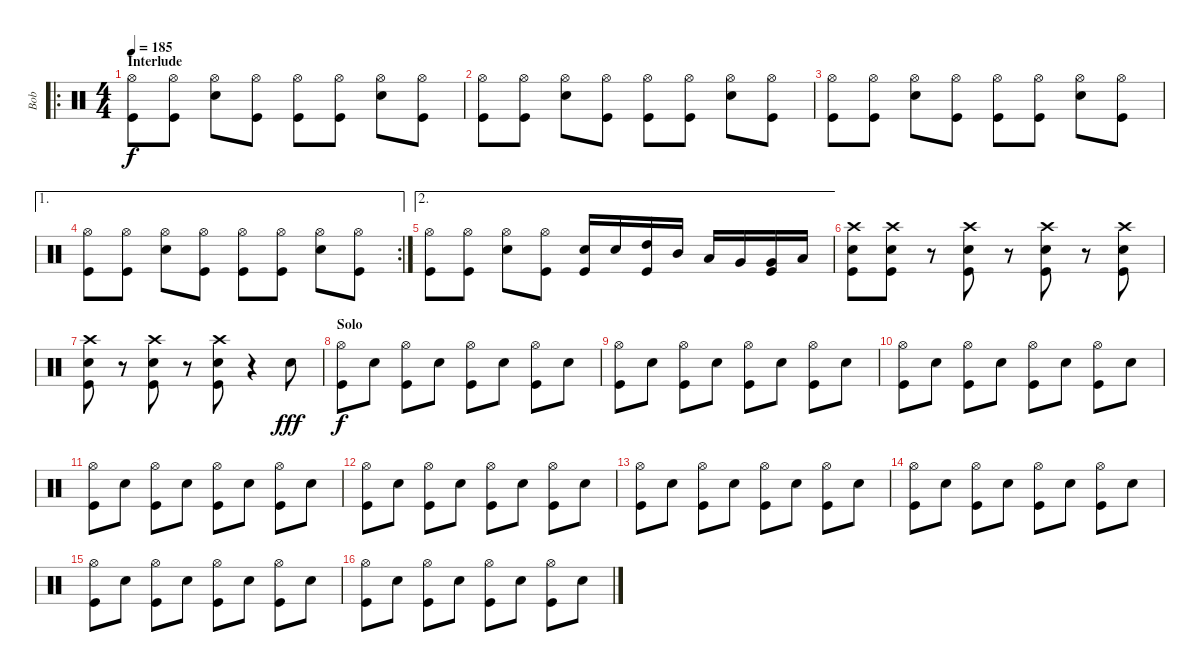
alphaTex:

\track ("Bob" "Bob") {instrument percussion}
\staff {score}
\articulation defaults
\ro
\ts (4 4)
\section ("" "Interlude")
\tempo 185
\clef neutral
\ks c
("Hi-Hat (open)" "Kick (hit)").8{dy f} ("Hi-Hat (open)" "Kick (hit)").8 ("Hi-Hat (open)" "Snare (hit) 2").8 ("Hi-Hat (open)" "Kick (hit)").8 ("Hi-Hat (open)" "Kick (hit)").8 ("Hi-Hat (open)" "Kick (hit)").8 ("Hi-Hat (open)" "Snare (hit) 2").8 ("Hi-Hat (open)" "Kick (hit)").8 |
("Hi-Hat (open)" "Kick (hit)").8 ("Hi-Hat (open)" "Kick (hit)").8 ("Hi-Hat (open)" "Snare (hit) 2").8 ("Hi-Hat (open)" "Kick (hit)").8 ("Hi-Hat (open)" "Kick (hit)").8 ("Hi-Hat (open)" "Kick (hit)").8 ("Hi-Hat (open)" "Snare (hit) 2").8 ("Hi-Hat (open)" "Kick (hit)").8 |
("Hi-Hat (open)" "Kick (hit)").8 ("Hi-Hat (open)" "Kick (hit)").8 ("Hi-Hat (open)" "Snare (hit) 2").8 ("Hi-Hat (open)" "Kick (hit)").8 ("Hi-Hat (open)" "Kick (hit)").8 ("Hi-Hat (open)" "Kick (hit)").8 ("Hi-Hat (open)" "Snare (hit) 2").8 ("Hi-Hat (open)" "Kick (hit)").8 |
\ae 1
\rc 2
("Hi-Hat (open)" "Kick (hit)").8 ("Hi-Hat (open)" "Kick (hit)").8 ("Hi-Hat (open)" "Snare (hit) 2").8 ("Hi-Hat (open)" "Kick (hit)").8 ("Hi-Hat (open)" "Kick (hit)").8 ("Hi-Hat (open)" "Kick (hit)").8 ("Hi-Hat (open)" "Snare (hit) 2").8 ("Hi-Hat (open)" "Kick (hit)").8 |
\ae 2
("Hi-Hat (open)" "Kick (hit)").8 ("Hi-Hat (open)" "Kick (hit)").8 ("Hi-Hat (open)" "Snare (hit) 2").8 ("Hi-Hat (open)" "Kick (hit)").8 ("Snare (hit) 2" "Kick (hit)").16 "Snare (hit) 2".16 ("High Tom (hit)" "Kick (hit)").16 "Mid Tom (hit)".16 "Low Tom (hit)".16 "Very Low Tom (hit)".16 ("Very Low Tom (hit)" "Kick (hit)").16 "Low Floor Tom (hit)".16 |
("Crash high (hit)" "Snare (hit) 2" "Kick (hit)").8 ("Crash high (hit)" "Snare (hit) 2" "Kick (hit)").8 r.8 ("Crash high (hit)" "Snare (hit) 2" "Kick (hit)").8 r.8 ("Crash high (hit)" "Snare (hit) 2" "Kick (hit)").8 r.8 ("Crash high (hit)" "Snare (hit) 2" "Kick (hit)").8 |
("Crash high (hit)" "Snare (hit) 2" "Kick (hit)").8 r.8 ("Crash high (hit)" "Snare (hit) 2" "Kick (hit)").8 r.8 ("Crash high (hit)" "Snare (hit) 2" "Kick (hit)").8 r.4 "Snare (hit) 2".8{txt " " dy fff} |
\section ("" "Solo")
("Hi-Hat (open)" "Kick (hit)").8{dy f} "Snare (hit) 2".8 ("Hi-Hat (open)" "Kick (hit)").8 "Snare (hit) 2".8 ("Hi-Hat (open)" "Kick (hit)").8 "Snare (hit) 2".8 ("Hi-Hat (open)" "Kick (hit)").8 "Snare (hit) 2".8 |
("Hi-Hat (open)" "Kick (hit)").8 "Snare (hit) 2".8 ("Hi-Hat (open)" "Kick (hit)").8 "Snare (hit) 2".8 ("Hi-Hat (open)" "Kick (hit)").8 "Snare (hit) 2".8 ("Hi-Hat (open)" "Kick (hit)").8 "Snare (hit) 2".8 |
("Hi-Hat (open)" "Kick (hit)").8 "Snare (hit) 2".8 ("Hi-Hat (open)" "Kick (hit)").8 "Snare (hit) 2".8 ("Hi-Hat (open)" "Kick (hit)").8 "Snare (hit) 2".8 ("Hi-Hat (open)" "Kick (hit)").8 "Snare (hit) 2".8 |
("Hi-Hat (open)" "Kick (hit)").8 "Snare (hit) 2".8 ("Hi-Hat (open)" "Kick (hit)").8 "Snare (hit) 2".8 ("Hi-Hat (open)" "Kick (hit)").8 "Snare (hit) 2".8 ("Hi-Hat (open)" "Kick (hit)").8 "Snare (hit) 2".8 |
("Hi-Hat (open)" "Kick (hit)").8 "Snare (hit) 2".8 ("Hi-Hat (open)" "Kick (hit)").8 "Snare (hit) 2".8 ("Hi-Hat (open)" "Kick (hit)").8 "Snare (hit) 2".8 ("Hi-Hat (open)" "Kick (hit)").8 "Snare (hit) 2".8 |
("Hi-Hat (open)" "Kick (hit)").8 "Snare (hit) 2".8 ("Hi-Hat (open)" "Kick (hit)").8 "Snare (hit) 2".8 ("Hi-Hat (open)" "Kick (hit)").8 "Snare (hit) 2".8 ("Hi-Hat (open)" "Kick (hit)").8 "Snare (hit) 2".8 |
("Hi-Hat (open)" "Kick (hit)").8 "Snare (hit) 2".8 ("Hi-Hat (open)" "Kick (hit)").8 "Snare (hit) 2".8 ("Hi-Hat (open)" "Kick (hit)").8 "Snare (hit) 2".8 ("Hi-Hat (open)" "Kick (hit)").8 "Snare (hit) 2".8 |
("Hi-Hat (open)" "Kick (hit)").8 "Snare (hit) 2".8 ("Hi-Hat (open)" "Kick (hit)").8 "Snare (hit) 2".8 ("Hi-Hat (open)" "Kick (hit)").8 "Snare (hit) 2".8 ("Hi-Hat (open)" "Kick (hit)").8 "Snare (hit) 2".8 |
("Hi-Hat (open)" "Kick (hit)").8 "Snare (hit) 2".8 ("Hi-Hat (open)" "Kick (hit)").8 "Snare (hit) 2".8 ("Hi-Hat (open)" "Kick (hit)").8 "Snare (hit) 2".8 ("Hi-Hat (open)" "Kick (hit)").8 "Snare (hit) 2".8
